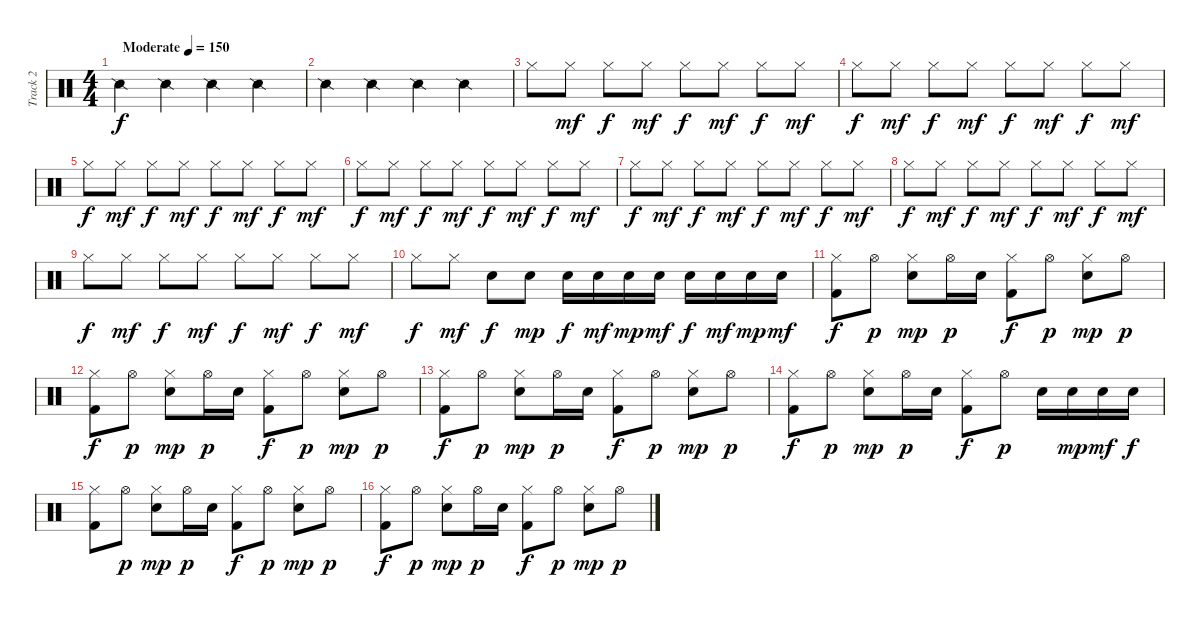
\track ("Track 2" "Track 2") {instrument percussion}
\staff {score}
\articulation defaults
\ts (4 4)
\tempo (150 "Moderate")
\clef neutral
\ks c "Snare (side stick) 2".4{dy f} "Snare (side stick) 2".4 "Snare (side stick) 2".4 "Snare (side stick) 2".4
|
"Snare (side stick) 2".4 "Snare (side stick) 2".4 "Snare (side stick) 2".4 "Snare (side stick) 2".4 |
"Hi-Hat (closed)".8 "Hi-Hat (closed)".8{dy mf} "Hi-Hat (closed)".8{dy f} "Hi-Hat (closed)".8{dy mf} "Hi-Hat (closed)".8{dy f} "Hi-Hat (closed)".8{dy mf} "Hi-Hat (closed)".8{dy f} "Hi-Hat (closed)".8{dy mf} |
"Hi-Hat (closed)".8{dy f} "Hi-Hat (closed)".8{dy mf} "Hi-Hat (closed)".8{dy f} "Hi-Hat (closed)".8{dy mf} "Hi-Hat (closed)".8{dy f} "Hi-Hat (closed)".8{dy mf} "Hi-Hat (closed)".8{dy f} "Hi-Hat (closed)".8{dy mf} |
"Hi-Hat (closed)".8{dy f} "Hi-Hat (closed)".8{dy mf} "Hi-Hat (closed)".8{dy f} "Hi-Hat (closed)".8{dy mf} "Hi-Hat (closed)".8{dy f} "Hi-Hat (closed)".8{dy mf} "Hi-Hat (closed)".8{dy f} "Hi-Hat (closed)".8{dy mf} |
"Hi-Hat (closed)".8{dy f} "Hi-Hat (closed)".8{dy mf} "Hi-Hat (closed)".8{dy f} "Hi-Hat (closed)".8{dy mf} "Hi-Hat (closed)".8{dy f} "Hi-Hat (closed)".8{dy mf} "Hi-Hat (closed)".8{dy f} "Hi-Hat (closed)".8{dy mf} |
"Hi-Hat (closed)".8{dy f} "Hi-Hat (closed)".8{dy mf} "Hi-Hat (closed)".8{dy f} "Hi-Hat (closed)".8{dy mf} "Hi-Hat (closed)".8{dy f} "Hi-Hat (closed)".8{dy mf} "Hi-Hat (closed)".8{dy f} "Hi-Hat (closed)".8{dy mf} |
"Hi-Hat (closed)".8{dy f} "Hi-Hat (closed)".8{dy mf} "Hi-Hat (closed)".8{dy f} "Hi-Hat (closed)".8{dy mf} "Hi-Hat (closed)".8{dy f} "Hi-Hat (closed)".8{dy mf} "Hi-Hat (closed)".8{dy f} "Hi-Hat (closed)".8{dy mf} |
"Hi-Hat (closed)".8{dy f} "Hi-Hat (closed)".8{dy mf} "Hi-Hat (closed)".8{dy f} "Hi-Hat (closed)".8{dy mf} "Hi-Hat (closed)".8{dy f} "Hi-Hat (closed)".8{dy mf} "Hi-Hat (closed)".8{dy f} "Hi-Hat (closed)".8{dy mf} |
"Hi-Hat (closed)".8{dy f} "Hi-Hat (closed)".8{dy mf} "Electric Snare (hit)".8{dy f} "Electric Snare (hit)".8{dy mp} "Electric Snare (hit)".16{dy f} "Electric Snare (hit)".16{dy mf} "Electric Snare (hit)".16{dy mp} "Electric Snare (hit)".16{dy mf} "Electric Snare (hit)".16{dy f} "Electric Snare (hit)".16{dy mf} "Electric Snare (hit)".16{dy mp} "Electric Snare (hit)".16{dy mf} |
("Hi-Hat (closed)" "Kick (hit) 2").8{dy f} "Hi-Hat (open)".8{dy p} ("Hi-Hat (closed)" "Electric Snare (hit)").8{dy mp} "Hi-Hat (open)".16{dy p} "Electric Snare (hit)".16 ("Hi-Hat (closed)" "Kick (hit) 2").8{dy f} "Hi-Hat (open)".8{dy p} ("Hi-Hat (closed)" "Electric Snare (hit)").8{dy mp} "Hi-Hat (open)".8{dy p} |
("Hi-Hat (closed)" "Kick (hit) 2").8{dy f} "Hi-Hat (open)".8{dy p} ("Hi-Hat (closed)" "Electric Snare (hit)").8{dy mp} "Hi-Hat (open)".16{dy p} "Electric Snare (hit)".16 ("Hi-Hat (closed)" "Kick (hit) 2").8{dy f} "Hi-Hat (open)".8{dy p} ("Hi-Hat (closed)" "Electric Snare (hit)").8{dy mp} "Hi-Hat (open)".8{dy p} |
("Hi-Hat (closed)" "Kick (hit) 2").8{dy f} "Hi-Hat (open)".8{dy p} ("Hi-Hat (closed)" "Electric Snare (hit)").8{dy mp} "Hi-Hat (open)".16{dy p} "Electric Snare (hit)".16 ("Hi-Hat (closed)" "Kick (hit) 2").8{dy f} "Hi-Hat (open)".8{dy p} ("Hi-Hat (closed)" "Electric Snare (hit)").8{dy mp} "Hi-Hat (open)".8{dy p} |
("Hi-Hat (closed)" "Kick (hit) 2").8{dy f} "Hi-Hat (open)".8{dy p} ("Hi-Hat (closed)" "Electric Snare (hit)").8{dy mp} "Hi-Hat (open)".16{dy p} "Electric Snare (hit)".16 ("Hi-Hat (closed)" "Kick (hit) 2").8{dy f} "Hi-Hat (open)".8{dy p} "Electric Snare (hit)".16 "Electric Snare (hit)".16{dy mp} "Electric Snare (hit)".16{dy mf} "Electric Snare (hit)".16{dy f} |
("Hi-Hat (closed)" "Kick (hit) 2").8 "Hi-Hat (open)".8{dy p} ("Hi-Hat (closed)" "Electric Snare (hit)").8{dy mp} "Hi-Hat (open)".16{dy p} "Electric Snare (hit)".16 ("Hi-Hat (closed)" "Kick (hit) 2").8{dy f} "Hi-Hat (open)".8{dy p} ("Hi-Hat (closed)" "Electric Snare (hit)").8{dy mp} "Hi-Hat (open)".8{dy p} |
("Hi-Hat (closed)" "Kick (hit) 2").8{dy f} "Hi-Hat (open)".8{dy p} ("Hi-Hat (closed)" "Electric Snare (hit)").8{dy mp} "Hi-Hat (open)".16{dy p} "Electric Snare (hit)".16 ("Hi-Hat (closed)" "Kick (hit) 2").8{dy f} "Hi-Hat (open)".8{dy p} ("Hi-Hat (closed)" "Electric Snare (hit)").8{dy mp} "Hi-Hat (open)".8{dy p}
